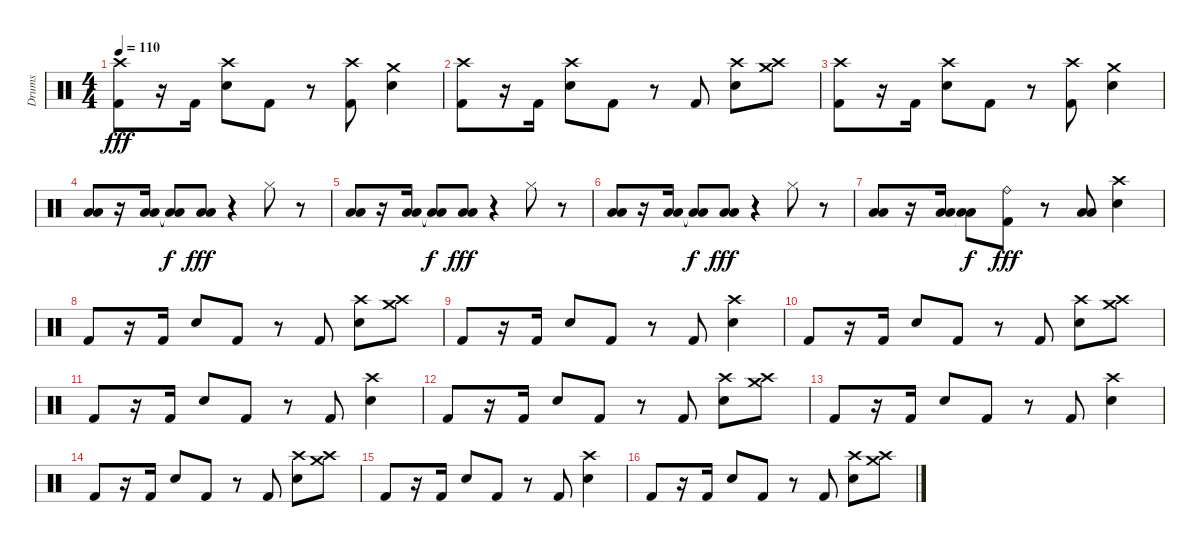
\track ("Drums" "Drums") {instrument percussion}
\staff {score}
\articulation defaults
\ts (4 4)
\tempo 110
\clef neutral
\ks c
("Crash high (hit)" "Kick (hit) 2").8{dy fff} r.16 "Kick (hit) 2".16 ("Crash high (hit)" "Electric Snare (hit)").8 "Kick (hit) 2".8 r.8 ("Crash high (hit)" "Kick (hit) 2").8 ("Crash medium (hit)" "Electric Snare (hit)").4 |
("Crash high (hit)" "Kick (hit) 2").8 r.16 "Kick (hit) 2".16 ("Crash high (hit)" "Electric Snare (hit)").8 "Kick (hit) 2".8 r.8 "Kick (hit) 2".8 ("Crash high (hit)" "Electric Snare (hit)").8 ("Crash high (hit)" "Crash medium (hit)").8 |
("Crash high (hit)" "Kick (hit) 2").8 r.16 "Kick (hit) 2".16 ("Crash high (hit)" "Electric Snare (hit)").8 "Kick (hit) 2".8 r.8 ("Crash high (hit)" "Kick (hit) 2").8 ("Crash medium (hit)" "Electric Snare (hit)").4 |
("Low Tom (hit)" "Low Floor Tom (hit)").8 r.16 ("Low Tom (hit)" "Low Floor Tom (hit)").16 ("Low Tom (hit)"{t} "Low Floor Tom (hit)"{t}).8{dy f} ("Low Tom (hit)" "Low Floor Tom (hit)").8{dy fff} r.4 "Hi-Hat (closed)".8 r.8 |
("Low Tom (hit)" "Low Floor Tom (hit)").8 r.16 ("Low Tom (hit)" "Low Floor Tom (hit)").16 ("Low Tom (hit)"{t} "Low Floor Tom (hit)"{t}).8{dy f} ("Low Tom (hit)" "Low Floor Tom (hit)").8{dy fff} r.4 "Hi-Hat (closed)".8 r.8 |
("Low Tom (hit)" "Low Floor Tom (hit)").8 r.16 ("Low Tom (hit)" "Low Floor Tom (hit)").16 ("Low Tom (hit)"{t} "Low Floor Tom (hit)"{t}).8{dy f} ("Low Tom (hit)" "Low Floor Tom (hit)").8{dy fff} r.4 "Hi-Hat (closed)".8 r.8 |
("Low Tom (hit)" "Low Floor Tom (hit)").8 r.16 ("Low Tom (hit)" "Low Floor Tom (hit)").16 ("Low Tom (hit)"{t} "Low Floor Tom (hit)"{t}).8{dy f} ("Ride (bell)" "Kick (hit) 2").8{dy fff} r.8 ("Low Tom (hit)" "Low Floor Tom (hit)").8 ("Crash high (hit)" "Electric Snare (hit)").4 |
"Kick (hit) 2".8 r.16 "Kick (hit) 2".16 "Electric Snare (hit)".8 "Kick (hit) 2".8 r.8 "Kick (hit) 2".8 ("Crash high (hit)" "Electric Snare (hit)").8 ("Crash high (hit)" "Crash medium (hit)").8 |
"Kick (hit) 2".8 r.16 "Kick (hit) 2".16 "Electric Snare (hit)".8 "Kick (hit) 2".8 r.8 "Kick (hit) 2".8 ("Crash high (hit)" "Electric Snare (hit)").4 |
"Kick (hit) 2".8 r.16 "Kick (hit) 2".16 "Electric Snare (hit)".8 "Kick (hit) 2".8 r.8 "Kick (hit) 2".8 ("Crash high (hit)" "Electric Snare (hit)").8 ("Crash high (hit)" "Crash medium (hit)").8 |
"Kick (hit) 2".8 r.16 "Kick (hit) 2".16 "Electric Snare (hit)".8 "Kick (hit) 2".8 r.8 "Kick (hit) 2".8 ("Crash high (hit)" "Electric Snare (hit)").4 |
"Kick (hit) 2".8 r.16 "Kick (hit) 2".16 "Electric Snare (hit)".8 "Kick (hit) 2".8 r.8 "Kick (hit) 2".8 ("Crash high (hit)" "Electric Snare (hit)").8 ("Crash high (hit)" "Crash medium (hit)").8 |
"Kick (hit) 2".8 r.16 "Kick (hit) 2".16 "Electric Snare (hit)".8 "Kick (hit) 2".8 r.8 "Kick (hit) 2".8 ("Crash high (hit)" "Electric Snare (hit)").4 |
"Kick (hit) 2".8 r.16 "Kick (hit) 2".16 "Electric Snare (hit)".8 "Kick (hit) 2".8 r.8 "Kick (hit) 2".8 ("Crash high (hit)" "Electric Snare (hit)").8 ("Crash high (hit)" "Crash medium (hit)").8 |
"Kick (hit) 2".8 r.16 "Kick (hit) 2".16 "Electric Snare (hit)".8 "Kick (hit) 2".8 r.8 "Kick (hit) 2".8 ("Crash high (hit)" "Electric Snare (hit)").4 |
"Kick (hit) 2".8 r.16 "Kick (hit) 2".16 "Electric Snare (hit)".8 "Kick (hit) 2".8 r.8 "Kick (hit) 2".8 ("Crash high (hit)" "Electric Snare (hit)").8 ("Crash high (hit)" "Crash medium (hit)").8
